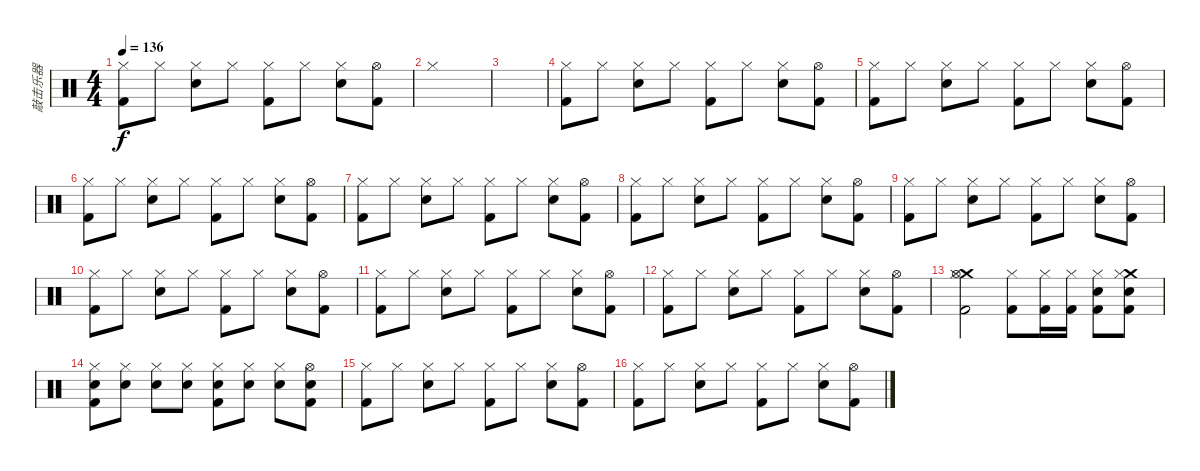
\track ("敲击乐器" "敲击乐器") {instrument percussion}
\staff {score}
\articulation defaults
\ts (4 4)
\tempo 136
\clef neutral
\ks c
("Hi-Hat (closed)" "Kick (hit) 2").8{dy f} "Hi-Hat (closed)".8 ("Hi-Hat (closed)" "Electric Snare (hit)").8 "Hi-Hat (closed)".8 ("Hi-Hat (closed)" "Kick (hit) 2").8 "Hi-Hat (closed)".8 ("Hi-Hat (closed)" "Electric Snare (hit)").8 ("Hi-Hat (open)" "Kick (hit) 2").8 |
"Hi-Hat (closed)".1 |
|
("Hi-Hat (closed)" "Kick (hit) 2").8 "Hi-Hat (closed)".8 ("Hi-Hat (closed)" "Electric Snare (hit)").8 "Hi-Hat (closed)".8 ("Hi-Hat (closed)" "Kick (hit) 2").8 "Hi-Hat (closed)".8 ("Hi-Hat (closed)" "Electric Snare (hit)").8 ("Hi-Hat (open)" "Kick (hit) 2").8 |
("Hi-Hat (closed)" "Kick (hit) 2").8 "Hi-Hat (closed)".8 ("Hi-Hat (closed)" "Electric Snare (hit)").8 "Hi-Hat (closed)".8 ("Hi-Hat (closed)" "Kick (hit) 2").8 "Hi-Hat (closed)".8 ("Hi-Hat (closed)" "Electric Snare (hit)").8 ("Hi-Hat (open)" "Kick (hit) 2").8 |
("Hi-Hat (closed)" "Kick (hit) 2").8 "Hi-Hat (closed)".8 ("Hi-Hat (closed)" "Electric Snare (hit)").8 "Hi-Hat (closed)".8 ("Hi-Hat (closed)" "Kick (hit) 2").8 "Hi-Hat (closed)".8 ("Hi-Hat (closed)" "Electric Snare (hit)").8 ("Hi-Hat (open)" "Kick (hit) 2").8 |
("Hi-Hat (closed)" "Kick (hit) 2").8 "Hi-Hat (closed)".8 ("Hi-Hat (closed)" "Electric Snare (hit)").8 "Hi-Hat (closed)".8 ("Hi-Hat (closed)" "Kick (hit) 2").8 "Hi-Hat (closed)".8 ("Hi-Hat (closed)" "Electric Snare (hit)").8 ("Hi-Hat (open)" "Kick (hit) 2").8 |
("Hi-Hat (closed)" "Kick (hit) 2").8 "Hi-Hat (closed)".8 ("Hi-Hat (closed)" "Electric Snare (hit)").8 "Hi-Hat (closed)".8 ("Hi-Hat (closed)" "Kick (hit) 2").8 "Hi-Hat (closed)".8 ("Hi-Hat (closed)" "Electric Snare (hit)").8 ("Hi-Hat (open)" "Kick (hit) 2").8 |
("Hi-Hat (closed)" "Kick (hit) 2").8 "Hi-Hat (closed)".8 ("Hi-Hat (closed)" "Electric Snare (hit)").8 "Hi-Hat (closed)".8 ("Hi-Hat (closed)" "Kick (hit) 2").8 "Hi-Hat (closed)".8 ("Hi-Hat (closed)" "Electric Snare (hit)").8 ("Hi-Hat (open)" "Kick (hit) 2").8 |
("Hi-Hat (closed)" "Kick (hit) 2").8 "Hi-Hat (closed)".8 ("Hi-Hat (closed)" "Electric Snare (hit)").8 "Hi-Hat (closed)".8 ("Hi-Hat (closed)" "Kick (hit) 2").8 "Hi-Hat (closed)".8 ("Hi-Hat (closed)" "Electric Snare (hit)").8 ("Hi-Hat (open)" "Kick (hit) 2").8 |
("Hi-Hat (closed)" "Kick (hit) 2").8 "Hi-Hat (closed)".8 ("Hi-Hat (closed)" "Electric Snare (hit)").8 "Hi-Hat (closed)".8 ("Hi-Hat (closed)" "Kick (hit) 2").8 "Hi-Hat (closed)".8 ("Hi-Hat (closed)" "Electric Snare (hit)").8 ("Hi-Hat (open)" "Kick (hit) 2").8 |
("Hi-Hat (closed)" "Kick (hit) 2").8 "Hi-Hat (closed)".8 ("Hi-Hat (closed)" "Electric Snare (hit)").8 "Hi-Hat (closed)".8 ("Hi-Hat (closed)" "Kick (hit) 2").8 "Hi-Hat (closed)".8 ("Hi-Hat (closed)" "Electric Snare (hit)").8 ("Hi-Hat (open)" "Kick (hit) 2").8 |
("Crash medium (hit)" "Hi-Hat (open)" "Hi-Hat (closed)" "Kick (hit) 2").2 ("Kick (hit) 2" "Hi-Hat (closed)").8 ("Kick (hit) 2" "Hi-Hat (closed)").16 ("Kick (hit) 2" "Hi-Hat (closed)").16 ("Snare (hit) 2" "Kick (hit) 2" "Hi-Hat (closed)").8 ("Crash medium (hit)" "Snare (hit) 2" "Kick (hit) 2" "Hi-Hat (closed)").8 |
("Hi-Hat (closed)" "Snare (hit) 2" "Kick (hit) 2").8 ("Hi-Hat (closed)" "Snare (hit) 2").8 ("Hi-Hat (closed)" "Snare (hit) 2").8 ("Hi-Hat (closed)" "Snare (hit) 2").8 ("Hi-Hat (closed)" "Snare (hit) 2" "Kick (hit) 2").8 ("Hi-Hat (closed)" "Snare (hit) 2").8 ("Hi-Hat (closed)" "Snare (hit) 2").8 ("Hi-Hat (open)" "Snare (hit) 2" "Kick (hit) 2").8 |
("Hi-Hat (closed)" "Kick (hit) 2").8 "Hi-Hat (closed)".8 ("Hi-Hat (closed)" "Electric Snare (hit)").8 "Hi-Hat (closed)".8 ("Hi-Hat (closed)" "Kick (hit) 2").8 "Hi-Hat (closed)".8 ("Hi-Hat (closed)" "Electric Snare (hit)").8 ("Hi-Hat (open)" "Kick (hit) 2").8 |
("Hi-Hat (closed)" "Kick (hit) 2").8 "Hi-Hat (closed)".8 ("Hi-Hat (closed)" "Electric Snare (hit)").8 "Hi-Hat (closed)".8 ("Hi-Hat (closed)" "Kick (hit) 2").8 "Hi-Hat (closed)".8 ("Hi-Hat (closed)" "Electric Snare (hit)").8 ("Hi-Hat (open)" "Kick (hit) 2").8
